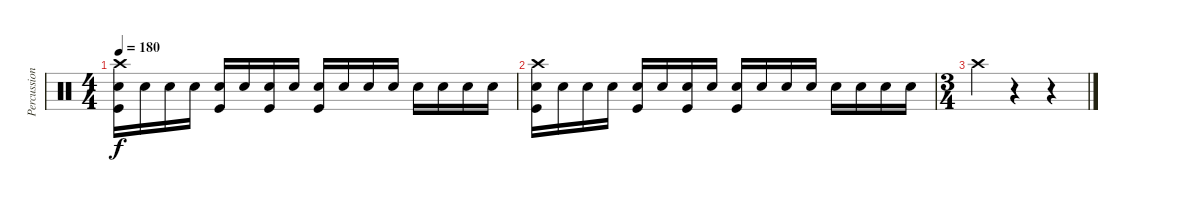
\track ("Percussion" "Percussion") {instrument percussion}
\staff {score}
\articulation defaults
\ts (4 4)
\tempo 180
\clef neutral
\ks c
("Crash high (hit)" "Snare (hit) 2" "Kick (hit)").16{dy f} "Snare (hit) 2".16 "Snare (hit) 2".16 "Snare (hit) 2".16 ("Snare (hit) 2" "Kick (hit)").16 "Snare (hit) 2".16 ("Snare (hit) 2" "Kick (hit)").16 "Snare (hit) 2".16 ("Snare (hit) 2" "Kick (hit)").16 "Snare (hit) 2".16 "Snare (hit) 2".16 "Snare (hit) 2".16 "Snare (hit) 2".16 "Snare (hit) 2".16 "Snare (hit) 2".16 "Snare (hit) 2".16 |
("Crash high (hit)" "Snare (hit) 2" "Kick (hit)").16 "Snare (hit) 2".16 "Snare (hit) 2".16 "Snare (hit) 2".16 ("Snare (hit) 2" "Kick (hit)").16 "Snare (hit) 2".16 ("Snare (hit) 2" "Kick (hit)").16 "Snare (hit) 2".16 ("Snare (hit) 2" "Kick (hit)").16 "Snare (hit) 2".16 "Snare (hit) 2".16 "Snare (hit) 2".16 "Snare (hit) 2".16 "Snare (hit) 2".16 "Snare (hit) 2".16 "Snare (hit) 2".16 |
\ts (3 4)
"Crash high (hit)".4 r.4 r.4
